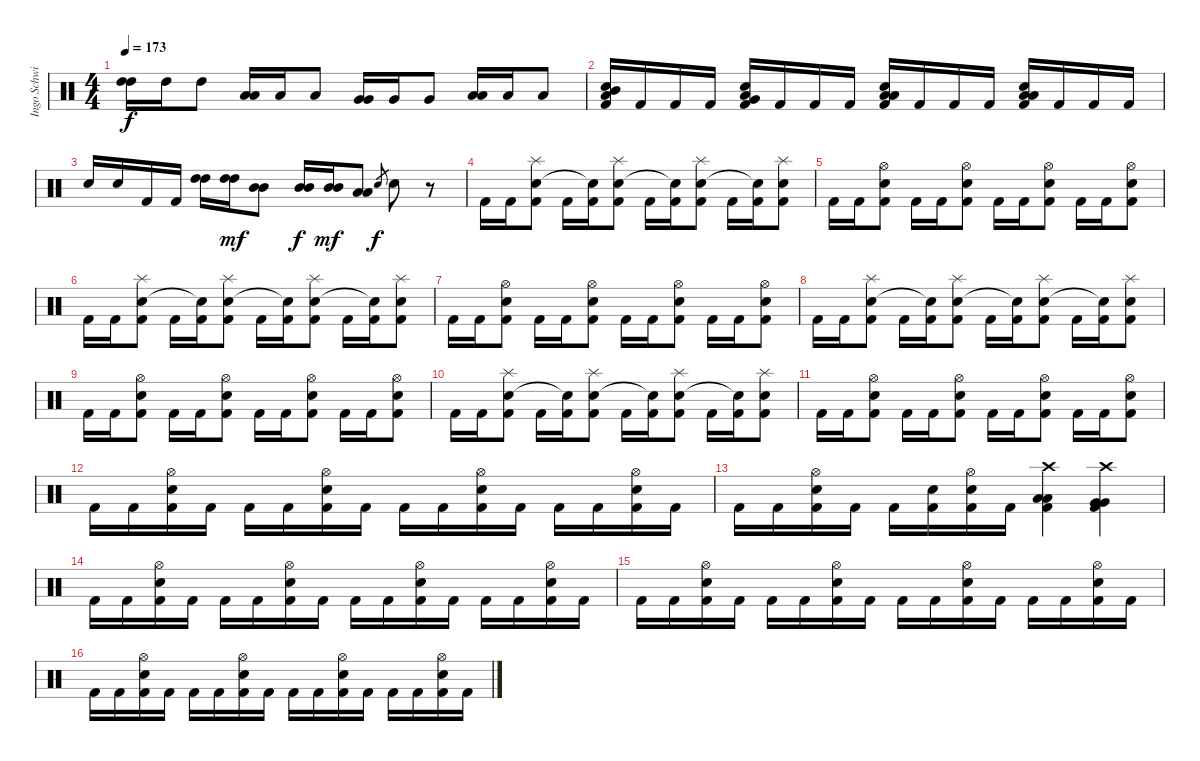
\track ("Ingo Schwichtenberg" "Ingo Schwi") {instrument percussion}
\staff {score}
\articulation defaults
\ts (4 4)
\tempo 173
\clef neutral
\ks c
("High Tom (hit)" "High Tom (hit)").16{dy f} "High Tom (hit)".16 "High Tom (hit)".8 ("Low Tom (hit)" "Low Tom (hit)").16 "Low Tom (hit)".16 "Low Tom (hit)".8 ("Very Low Tom (hit)" "Very Low Tom (hit)").16 "Very Low Tom (hit)".16 "Very Low Tom (hit)".8 ("Low Floor Tom (hit)" "Low Floor Tom (hit)").16 "Low Floor Tom (hit)".16 "Low Floor Tom (hit)".8 |
("Kick (hit) 2" "Low Tom (hit)" "Mid Tom (hit)" "Snare (hit) 2").16 "Kick (hit) 2".16 "Kick (hit) 2".16 "Kick (hit) 2".16 ("Kick (hit) 2" "Low Tom (hit)" "Very Low Tom (hit)" "Snare (hit) 2").16 "Kick (hit) 2".16 "Kick (hit) 2".16 "Kick (hit) 2".16 ("Kick (hit) 2" "Low Tom (hit)" "Low Floor Tom (hit)" "Snare (hit) 2").16 "Kick (hit) 2".16 "Kick (hit) 2".16 "Kick (hit) 2".16 ("Kick (hit) 2" "Low Tom (hit)" "Low Tom (hit)" "Snare (hit) 2").16 "Kick (hit) 2".16 "Kick (hit) 2".16 "Kick (hit) 2".16 |
"Snare (hit) 2".16 "Snare (hit) 2".16 "Kick (hit) 2".16 "Kick (hit) 2".16 ("High Tom (hit)" "High Tom (hit)").16 ("High Tom (hit)" "High Tom (hit)").16{dy mf} ("Mid Tom (hit)" "Mid Tom (hit)").8 ("Mid Tom (hit)" "Mid Tom (hit)").16{dy f} ("Mid Tom (hit)" "Mid Tom (hit)").16{dy mf} ("Low Tom (hit)" "Low Tom (hit)").8 "Snare (hit) 2".8{gr dy f} "Snare (hit) 2".8 r.8 |
"Kick (hit) 2".16 "Kick (hit) 2".16 ("Kick (hit) 2" "Snare (hit) 2" "Splash (hit)").8 "Kick (hit) 2".16 ("Kick (hit) 2" "Snare (hit)"{t}).16 ("Kick (hit) 2" "Snare (hit) 2" "Splash (hit)").8 "Kick (hit) 2".16 ("Kick (hit) 2" "Snare (hit)"{t}).16 ("Kick (hit) 2" "Snare (hit) 2" "Splash (hit)").8 "Kick (hit) 2".16 ("Kick (hit) 2" "Snare (hit)"{t}).16 ("Kick (hit) 2" "Snare (hit) 2" "Splash (hit)").8 |
"Kick (hit) 2".16 "Kick (hit) 2".16 ("Kick (hit) 2" "Snare (hit) 2" "Hi-Hat (open)").8 "Kick (hit) 2".16 "Kick (hit) 2".16 ("Kick (hit) 2" "Snare (hit) 2" "Hi-Hat (open)").8 "Kick (hit) 2".16 "Kick (hit) 2".16 ("Kick (hit) 2" "Snare (hit) 2" "Hi-Hat (open)").8 "Kick (hit) 2".16 "Kick (hit) 2".16 ("Kick (hit) 2" "Snare (hit) 2" "Hi-Hat (open)").8 |
"Kick (hit) 2".16 "Kick (hit) 2".16 ("Kick (hit) 2" "Snare (hit) 2" "Splash (hit)").8 "Kick (hit) 2".16 ("Kick (hit) 2" "Snare (hit)"{t}).16 ("Kick (hit) 2" "Snare (hit) 2" "Splash (hit)").8 "Kick (hit) 2".16 ("Kick (hit) 2" "Snare (hit)"{t}).16 ("Kick (hit) 2" "Snare (hit) 2" "Splash (hit)").8 "Kick (hit) 2".16 ("Kick (hit) 2" "Snare (hit)"{t}).16 ("Kick (hit) 2" "Snare (hit) 2" "Splash (hit)").8 |
"Kick (hit) 2".16 "Kick (hit) 2".16 ("Kick (hit) 2" "Snare (hit) 2" "Hi-Hat (open)").8 "Kick (hit) 2".16 "Kick (hit) 2".16 ("Kick (hit) 2" "Snare (hit) 2" "Hi-Hat (open)").8 "Kick (hit) 2".16 "Kick (hit) 2".16 ("Kick (hit) 2" "Snare (hit) 2" "Hi-Hat (open)").8 "Kick (hit) 2".16 "Kick (hit) 2".16 ("Kick (hit) 2" "Snare (hit) 2" "Hi-Hat (open)").8 |
"Kick (hit) 2".16 "Kick (hit) 2".16 ("Kick (hit) 2" "Snare (hit) 2" "Splash (hit)").8 "Kick (hit) 2".16 ("Kick (hit) 2" "Snare (hit)"{t}).16 ("Kick (hit) 2" "Snare (hit) 2" "Splash (hit)").8 "Kick (hit) 2".16 ("Kick (hit) 2" "Snare (hit)"{t}).16 ("Kick (hit) 2" "Snare (hit) 2" "Splash (hit)").8 "Kick (hit) 2".16 ("Kick (hit) 2" "Snare (hit)"{t}).16 ("Kick (hit) 2" "Snare (hit) 2" "Splash (hit)").8 |
"Kick (hit) 2".16 "Kick (hit) 2".16 ("Kick (hit) 2" "Snare (hit) 2" "Hi-Hat (open)").8 "Kick (hit) 2".16 "Kick (hit) 2".16 ("Kick (hit) 2" "Snare (hit) 2" "Hi-Hat (open)").8 "Kick (hit) 2".16 "Kick (hit) 2".16 ("Kick (hit) 2" "Snare (hit) 2" "Hi-Hat (open)").8 "Kick (hit) 2".16 "Kick (hit) 2".16 ("Kick (hit) 2" "Snare (hit) 2" "Hi-Hat (open)").8 |
"Kick (hit) 2".16 "Kick (hit) 2".16 ("Kick (hit) 2" "Snare (hit) 2" "Splash (hit)").8 "Kick (hit) 2".16 ("Kick (hit) 2" "Snare (hit)"{t}).16 ("Kick (hit) 2" "Snare (hit) 2" "Splash (hit)").8 "Kick (hit) 2".16 ("Kick (hit) 2" "Snare (hit)"{t}).16 ("Kick (hit) 2" "Snare (hit) 2" "Splash (hit)").8 "Kick (hit) 2".16 ("Kick (hit) 2" "Snare (hit)"{t}).16 ("Kick (hit) 2" "Snare (hit) 2" "Splash (hit)").8 |
"Kick (hit) 2".16 "Kick (hit) 2".16 ("Kick (hit) 2" "Snare (hit) 2" "Hi-Hat (open)").8 "Kick (hit) 2".16 "Kick (hit) 2".16 ("Kick (hit) 2" "Snare (hit) 2" "Hi-Hat (open)").8 "Kick (hit) 2".16 "Kick (hit) 2".16 ("Kick (hit) 2" "Snare (hit) 2" "Hi-Hat (open)").8 "Kick (hit) 2".16 "Kick (hit) 2".16 ("Kick (hit) 2" "Snare (hit) 2" "Hi-Hat (open)").8 |
"Kick (hit) 2".16 "Kick (hit) 2".16 ("Kick (hit) 2" "Snare (hit) 2" "Hi-Hat (open)").16 "Kick (hit) 2".16 "Kick (hit) 2".16 "Kick (hit) 2".16 ("Kick (hit) 2" "Snare (hit) 2" "Hi-Hat (open)").16 "Kick (hit) 2".16 "Kick (hit) 2".16 "Kick (hit) 2".16 ("Kick (hit) 2" "Snare (hit) 2" "Hi-Hat (open)").16 "Kick (hit) 2".16 "Kick (hit) 2".16 "Kick (hit) 2".16 ("Kick (hit) 2" "Snare (hit) 2" "Hi-Hat (open)").16 "Kick (hit) 2".16 |
"Kick (hit) 2".16 "Kick (hit) 2".16 ("Kick (hit) 2" "Snare (hit) 2" "Hi-Hat (open)").16 "Kick (hit) 2".16 "Kick (hit) 2".16 ("Kick (hit) 2" "Snare (hit) 2").16 ("Kick (hit) 2" "Snare (hit) 2" "Hi-Hat (open)").16 "Kick (hit) 2".16 ("Low Tom (hit)" "Low Tom (hit)" "Kick (hit) 2" "Crash high (hit)").4 ("Very Low Tom (hit)" "Very Low Tom (hit)" "Kick (hit) 2" "Crash high (hit)").4 |
"Kick (hit) 2".16 "Kick (hit) 2".16 ("Kick (hit) 2" "Snare (hit) 2" "Hi-Hat (open)").16 "Kick (hit) 2".16 "Kick (hit) 2".16 "Kick (hit) 2".16 ("Kick (hit) 2" "Snare (hit) 2" "Hi-Hat (open)").16 "Kick (hit) 2".16 "Kick (hit) 2".16 "Kick (hit) 2".16 ("Kick (hit) 2" "Snare (hit) 2" "Hi-Hat (open)").16 "Kick (hit) 2".16 "Kick (hit) 2".16 "Kick (hit) 2".16 ("Kick (hit) 2" "Snare (hit) 2" "Hi-Hat (open)").16 "Kick (hit) 2".16 |
"Kick (hit) 2".16 "Kick (hit) 2".16 ("Kick (hit) 2" "Snare (hit) 2" "Hi-Hat (open)").16 "Kick (hit) 2".16 "Kick (hit) 2".16 "Kick (hit) 2".16 ("Kick (hit) 2" "Snare (hit) 2" "Hi-Hat (open)").16 "Kick (hit) 2".16 "Kick (hit) 2".16 "Kick (hit) 2".16 ("Kick (hit) 2" "Snare (hit) 2" "Hi-Hat (open)").16 "Kick (hit) 2".16 "Kick (hit) 2".16 "Kick (hit) 2".16 ("Kick (hit) 2" "Snare (hit) 2" "Hi-Hat (open)").16 "Kick (hit) 2".16 |
"Kick (hit) 2".16 "Kick (hit) 2".16 ("Kick (hit) 2" "Snare (hit) 2" "Hi-Hat (open)").16 "Kick (hit) 2".16 "Kick (hit) 2".16 "Kick (hit) 2".16 ("Kick (hit) 2" "Snare (hit) 2" "Hi-Hat (open)").16 "Kick (hit) 2".16 "Kick (hit) 2".16 "Kick (hit) 2".16 ("Kick (hit) 2" "Snare (hit) 2" "Hi-Hat (open)").16 "Kick (hit) 2".16 "Kick (hit) 2".16 "Kick (hit) 2".16 ("Kick (hit) 2" "Snare (hit) 2" "Hi-Hat (open)").16 "Kick (hit) 2".16
